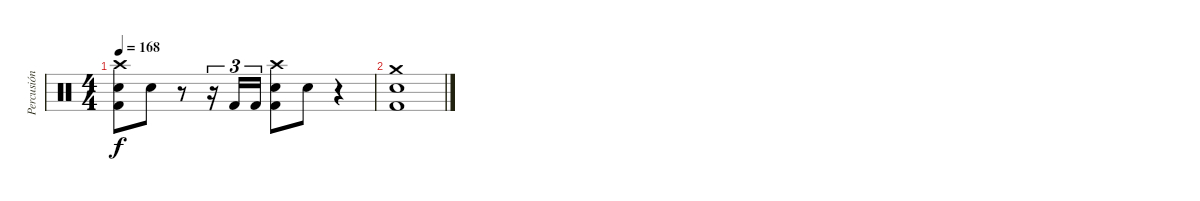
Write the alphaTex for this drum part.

\track ("Percusión" "Percusión") {instrument percussion}
\staff {score}
\articulation defaults
\ts (4 4)
\tempo 168
\clef neutral
\ks c
("Crash high (hit)" "Electric Snare (hit)" "Kick (hit) 2").8{dy f} "Electric Snare (hit)".8 r.8 r.16{tu (3 2)} "Kick (hit) 2".16{tu (3 2)} "Kick (hit) 2".16{tu (3 2)} ("Crash high (hit)" "Electric Snare (hit)" "Kick (hit) 2").8 "Electric Snare (hit)".8 r.4 |
("Crash medium (hit)" "Electric Snare (hit)" "Kick (hit) 2").1
